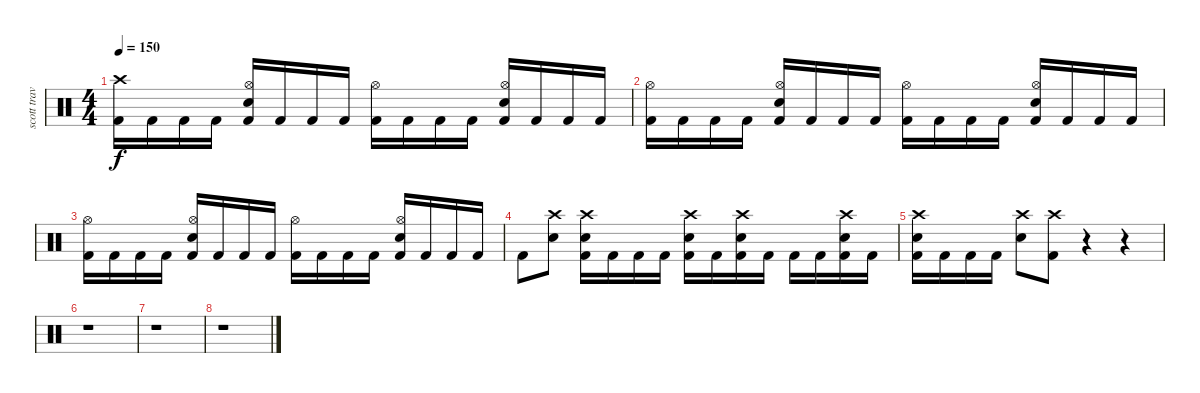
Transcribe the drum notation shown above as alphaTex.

\track ("scott travis" "scott trav") {instrument percussion}
\staff {score}
\articulation defaults
\ts (4 4)
\tempo 150
\clef neutral
\ks c
("Crash high (hit)" "Kick (hit) 2").16{dy f} "Kick (hit) 2".16 "Kick (hit) 2".16 "Kick (hit) 2".16 ("Hi-Hat (open)" "Snare (hit) 2" "Kick (hit) 2").16 "Kick (hit) 2".16 "Kick (hit) 2".16 "Kick (hit) 2".16 ("Hi-Hat (open)" "Kick (hit) 2").16 "Kick (hit) 2".16 "Kick (hit) 2".16 "Kick (hit) 2".16 ("Hi-Hat (open)" "Snare (hit) 2" "Kick (hit) 2").16 "Kick (hit) 2".16 "Kick (hit) 2".16 "Kick (hit) 2".16 |
("Hi-Hat (open)" "Kick (hit) 2").16 "Kick (hit) 2".16 "Kick (hit) 2".16 "Kick (hit) 2".16 ("Hi-Hat (open)" "Snare (hit) 2" "Kick (hit) 2").16 "Kick (hit) 2".16 "Kick (hit) 2".16 "Kick (hit) 2".16 ("Hi-Hat (open)" "Kick (hit) 2").16 "Kick (hit) 2".16 "Kick (hit) 2".16 "Kick (hit) 2".16 ("Hi-Hat (open)" "Snare (hit) 2" "Kick (hit) 2").16 "Kick (hit) 2".16 "Kick (hit) 2".16 "Kick (hit) 2".16 |
("Hi-Hat (open)" "Kick (hit) 2").16 "Kick (hit) 2".16 "Kick (hit) 2".16 "Kick (hit) 2".16 ("Hi-Hat (open)" "Snare (hit) 2" "Kick (hit) 2").16 "Kick (hit) 2".16 "Kick (hit) 2".16 "Kick (hit) 2".16 ("Hi-Hat (open)" "Kick (hit) 2").16 "Kick (hit) 2".16 "Kick (hit) 2".16 "Kick (hit) 2".16 ("Hi-Hat (open)" "Snare (hit) 2" "Kick (hit) 2").16 "Kick (hit) 2".16 "Kick (hit) 2".16 "Kick (hit) 2".16 |
"Kick (hit) 2".8 ("Crash high (hit)" "Snare (hit) 2").8 ("Crash high (hit)" "Snare (hit) 2" "Kick (hit) 2").16 "Kick (hit) 2".16 "Kick (hit) 2".16 "Kick (hit) 2".16 ("Crash high (hit)" "Snare (hit) 2" "Kick (hit) 2").16 "Kick (hit) 2".16 ("Crash high (hit)" "Snare (hit) 2" "Kick (hit) 2").16 "Kick (hit) 2".16 "Kick (hit) 2".16 "Kick (hit) 2".16 ("Crash high (hit)" "Snare (hit) 2" "Kick (hit) 2").16 "Kick (hit) 2".16 |
("Crash high (hit)" "Snare (hit) 2" "Kick (hit) 2").16 "Kick (hit) 2".16 "Kick (hit) 2".16 "Kick (hit) 2".16 ("Crash high (hit)" "Snare (hit) 2").8 ("Crash high (hit)" "Kick (hit) 2").8 r.4 r.4 |
r.1 |
r.1 |
r.1
